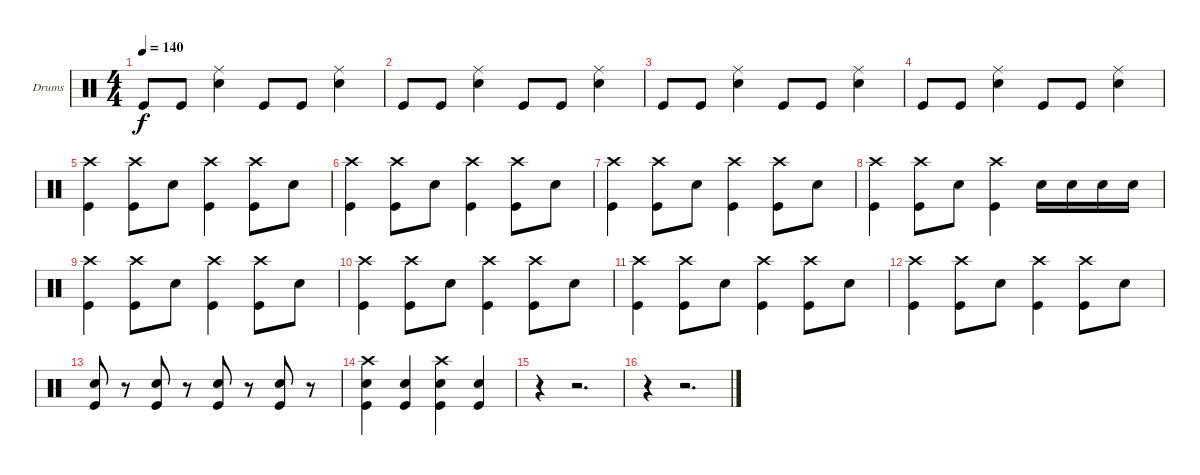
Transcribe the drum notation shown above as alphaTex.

\bracketExtendMode groupsimilarinstruments
\firstSystemTrackNameOrientation horizontal
\otherSystemsTrackNameOrientation horizontal
\track ("Ryan Seamen" "Drums") {instrument percussion}
\staff {score}
\articulation defaults
\ts (4 4)
\tempo 140
\clef neutral
\ks c "Kick (hit)".8{dy f} "Kick (hit)".8
("Ride (middle)" "Snare (hit) 2").4 "Kick (hit)".8 "Kick (hit)".8 ("Ride (middle)" "Snare (hit) 2").4 |
"Kick (hit)".8 "Kick (hit)".8 ("Ride (middle)" "Snare (hit) 2").4 "Kick (hit)".8 "Kick (hit)".8 ("Ride (middle)" "Snare (hit) 2").4 |
"Kick (hit)".8 "Kick (hit)".8 ("Ride (middle)" "Snare (hit) 2").4 "Kick (hit)".8 "Kick (hit)".8 ("Ride (middle)" "Snare (hit) 2").4 |
"Kick (hit)".8 "Kick (hit)".8 ("Ride (middle)" "Snare (hit) 2").4 "Kick (hit)".8 "Kick (hit)".8 ("Ride (middle)" "Snare (hit) 2").4 |
("Crash high (hit)" "Kick (hit)").4 ("Crash high (hit)" "Kick (hit)").8 "Snare (hit) 2".8 ("Crash high (hit)" "Kick (hit)").4 ("Crash high (hit)" "Kick (hit)").8 "Snare (hit) 2".8 |
("Crash high (hit)" "Kick (hit)").4 ("Crash high (hit)" "Kick (hit)").8 "Snare (hit) 2".8 ("Crash high (hit)" "Kick (hit)").4 ("Crash high (hit)" "Kick (hit)").8 "Snare (hit) 2".8 |
("Crash high (hit)" "Kick (hit)").4 ("Crash high (hit)" "Kick (hit)").8 "Snare (hit) 2".8 ("Crash high (hit)" "Kick (hit)").4 ("Crash high (hit)" "Kick (hit)").8 "Snare (hit) 2".8 |
("Crash high (hit)" "Kick (hit)").4 ("Crash high (hit)" "Kick (hit)").8 "Snare (hit) 2".8 ("Crash high (hit)" "Kick (hit)").4 "Snare (hit) 2".16 "Snare (hit) 2".16 "Snare (hit) 2".16 "Snare (hit) 2".16 |
("Crash high (hit)" "Kick (hit)").4 ("Crash high (hit)" "Kick (hit)").8 "Snare (hit) 2".8 ("Crash high (hit)" "Kick (hit)").4 ("Crash high (hit)" "Kick (hit)").8 "Snare (hit) 2".8 |
("Crash high (hit)" "Kick (hit)").4 ("Crash high (hit)" "Kick (hit)").8 "Snare (hit) 2".8 ("Crash high (hit)" "Kick (hit)").4 ("Crash high (hit)" "Kick (hit)").8 "Snare (hit) 2".8 |
("Crash high (hit)" "Kick (hit)").4 ("Crash high (hit)" "Kick (hit)").8 "Snare (hit) 2".8 ("Crash high (hit)" "Kick (hit)").4 ("Crash high (hit)" "Kick (hit)").8 "Snare (hit) 2".8 |
("Crash high (hit)" "Kick (hit)").4 ("Crash high (hit)" "Kick (hit)").8 "Snare (hit) 2".8 ("Crash high (hit)" "Kick (hit)").4 ("Crash high (hit)" "Kick (hit)").8 "Snare (hit) 2".8 |
("Snare (hit) 2" "Kick (hit)").8 r.8 ("Snare (hit) 2" "Kick (hit)").8 r.8 ("Snare (hit) 2" "Kick (hit)").8 r.8 ("Snare (hit) 2" "Kick (hit)").8 r.8 |
("Crash high (hit)" "Snare (hit) 2" "Kick (hit)").4 ("Snare (hit) 2" "Kick (hit)").4 ("Crash high (hit)" "Snare (hit) 2" "Kick (hit)").4 ("Snare (hit) 2" "Kick (hit)").4 |
r.4 r.2{d} |
r.4 r.2{d}
